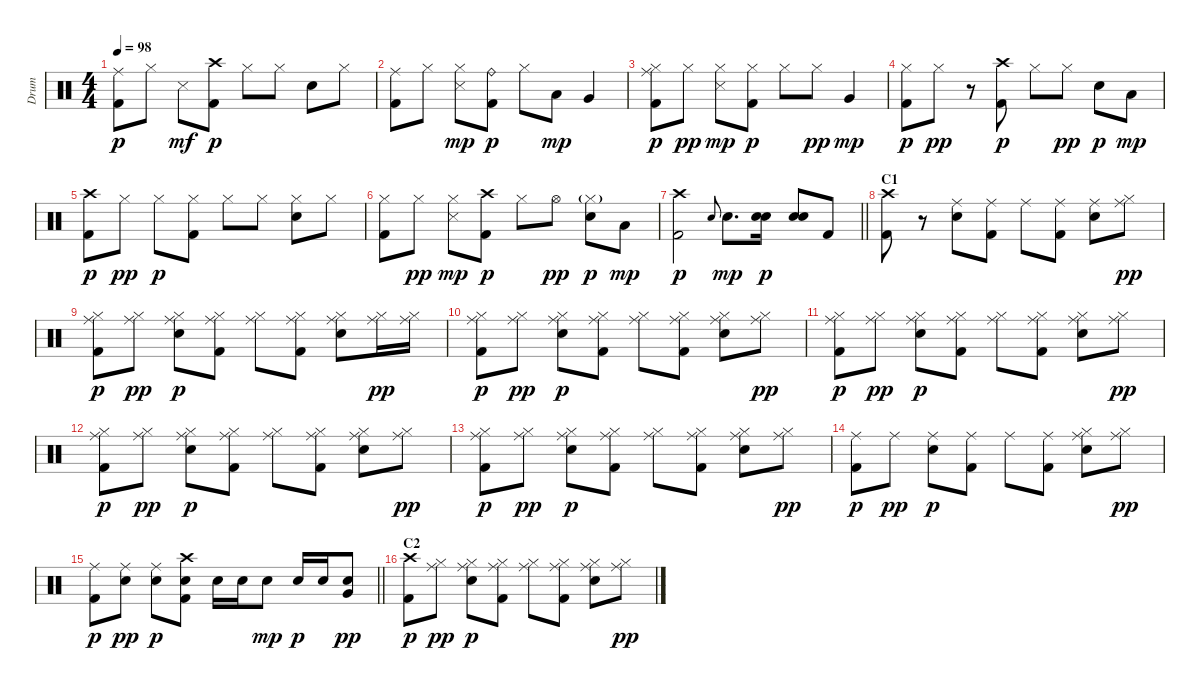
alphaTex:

\track ("Drum" "Drum") {instrument percussion}
\staff {score}
\articulation defaults
\ts (4 4)
\tempo 98
\clef neutral
\ks c
("Ride (middle)" "Kick (hit) 2").8{dy p} "Hi-Hat (closed)".8 "Snare (side stick) 3".8{dy mf} ("Crash high (hit)" "Kick (hit) 2").8{dy p} "Hi-Hat (closed)".8 "Hi-Hat (closed)".8 "Snare (hit) 2".8 "Hi-Hat (closed)".8 |
("Ride (middle)" "Kick (hit) 2").8 "Hi-Hat (closed)".8 ("Hi-Hat (closed)" "Snare (side stick) 3").8{dy mp} ("Ride (bell)" "Kick (hit) 2").8{dy p} "Hi-Hat (closed)".8 "Low Tom (hit)".8{dy mp} "Very Low Tom (hit)".4 |
("Ride (middle)" "Hi-Hat (closed)" "Kick (hit) 2").8{dy p} "Hi-Hat (closed)".8{dy pp} ("Hi-Hat (closed)" "Snare (side stick) 3").8{dy mp} ("Hi-Hat (closed)" "Kick (hit) 2").8{dy p} "Hi-Hat (closed)".8 "Hi-Hat (closed)".8{dy pp} "Very Low Tom (hit)".4{dy mp} |
("Hi-Hat (closed)" "Kick (hit) 2").8{dy p} "Hi-Hat (closed)".8{dy pp} r.8 ("Crash high (hit)" "Kick (hit) 2").8{dy p} "Hi-Hat (closed)".8 "Hi-Hat (closed)".8{dy pp} "Snare (hit) 2".8{dy p} "Low Tom (hit)".8{dy mp} |
("Crash high (hit)" "Kick (hit) 2").8{dy p} "Hi-Hat (closed)".8{dy pp} "Hi-Hat (closed)".8{dy p} ("Hi-Hat (closed)" "Kick (hit) 2").8 "Hi-Hat (closed)".8 "Hi-Hat (closed)".8 ("Hi-Hat (closed)" "Snare (hit) 2").8 "Hi-Hat (closed)".8 |
("Hi-Hat (closed)" "Kick (hit) 2").8 "Hi-Hat (closed)".8{dy pp} ("Hi-Hat (closed)" "Snare (side stick) 3").8{dy mp} ("Crash high (hit)" "Kick (hit) 2").8{dy p} "Hi-Hat (closed)".8 "Hi-Hat (open)".8{dy pp} ("Hi-Hat (closed)"{g} "Snare (hit) 2").8{dy p} "Low Tom (hit)".8{dy mp} |
\barLineRight lightlight
("Crash high (hit)" "Kick (hit) 2").2{dy p} "Snare (hit) 2".8{gr onbeat} "Snare (hit) 2".8{d dy mp} ("Snare (hit) 2" "Snare (hit) 2").16{dy p} ("Snare (hit) 2" "Snare (hit) 2").8 "Kick (hit) 2".8 |
\section ("" "C1")
("Crash high (hit)" "Kick (hit) 2").8 r.8 ("Ride (middle)" "Snare (hit) 2").8 ("Ride (middle)" "Kick (hit) 2").8 "Ride (middle)".8 ("Ride (middle)" "Kick (hit) 2").8 ("Ride (middle)" "Snare (hit) 2").8 ("Hi-Hat (closed)" "Ride (middle)").8{dy pp} |
("Hi-Hat (closed)" "Ride (middle)" "Kick (hit) 2").8{dy p} ("Hi-Hat (closed)" "Ride (middle)").8{dy pp} ("Hi-Hat (closed)" "Ride (middle)" "Snare (hit) 2").8{dy p} ("Hi-Hat (closed)" "Ride (middle)" "Kick (hit) 2").8 ("Hi-Hat (closed)" "Ride (middle)").8 ("Hi-Hat (closed)" "Ride (middle)" "Kick (hit) 2").8 ("Hi-Hat (closed)" "Ride (middle)" "Snare (hit) 2").8 ("Hi-Hat (closed)" "Ride (middle)").16{dy pp} ("Hi-Hat (closed)" "Ride (middle)").16 |
("Hi-Hat (closed)" "Ride (middle)" "Kick (hit) 2").8{dy p} ("Hi-Hat (closed)" "Ride (middle)").8{dy pp} ("Hi-Hat (closed)" "Ride (middle)" "Snare (hit) 2").8{dy p} ("Hi-Hat (closed)" "Ride (middle)" "Kick (hit) 2").8 ("Hi-Hat (closed)" "Ride (middle)").8 ("Hi-Hat (closed)" "Ride (middle)" "Kick (hit) 2").8 ("Hi-Hat (closed)" "Ride (middle)" "Snare (hit) 2").8 ("Hi-Hat (closed)" "Ride (middle)").8{dy pp} |
("Hi-Hat (closed)" "Ride (middle)" "Kick (hit) 2").8{dy p} ("Hi-Hat (closed)" "Ride (middle)").8{dy pp} ("Hi-Hat (closed)" "Ride (middle)" "Snare (hit) 2").8{dy p} ("Hi-Hat (closed)" "Ride (middle)" "Kick (hit) 2").8 ("Hi-Hat (closed)" "Ride (middle)").8 ("Hi-Hat (closed)" "Ride (middle)" "Kick (hit) 2").8 ("Hi-Hat (closed)" "Ride (middle)" "Snare (hit) 2").8 ("Hi-Hat (closed)" "Ride (middle)").8{dy pp} |
("Hi-Hat (closed)" "Ride (middle)" "Kick (hit) 2").8{dy p} ("Hi-Hat (closed)" "Ride (middle)").8{dy pp} ("Hi-Hat (closed)" "Ride (middle)" "Snare (hit) 2").8{dy p} ("Hi-Hat (closed)" "Ride (middle)" "Kick (hit) 2").8 ("Hi-Hat (closed)" "Ride (middle)").8 ("Hi-Hat (closed)" "Ride (middle)" "Kick (hit) 2").8 ("Hi-Hat (closed)" "Ride (middle)" "Snare (hit) 2").8 ("Hi-Hat (closed)" "Ride (middle)").8{dy pp} |
("Hi-Hat (closed)" "Ride (middle)" "Kick (hit) 2").8{dy p} ("Hi-Hat (closed)" "Ride (middle)").8{dy pp} ("Hi-Hat (closed)" "Ride (middle)" "Snare (hit) 2").8{dy p} ("Hi-Hat (closed)" "Ride (middle)" "Kick (hit) 2").8 ("Hi-Hat (closed)" "Ride (middle)").8 ("Hi-Hat (closed)" "Ride (middle)" "Kick (hit) 2").8 ("Hi-Hat (closed)" "Ride (middle)" "Snare (hit) 2").8 ("Hi-Hat (closed)" "Ride (middle)").8{dy pp} |
("Ride (middle)" "Kick (hit) 2").8{dy p} "Ride (middle)".8{dy pp} ("Ride (middle)" "Snare (hit) 2").8{dy p} ("Ride (middle)" "Kick (hit) 2").8 "Ride (middle)".8 ("Ride (middle)" "Kick (hit) 2").8 ("Hi-Hat (closed)" "Ride (middle)" "Snare (hit) 2").8 ("Hi-Hat (closed)" "Ride (middle)").8{dy pp} |
\barLineRight lightlight
("Ride (middle)" "Kick (hit) 2").8{dy p} ("Ride (middle)" "Snare (hit) 2").8{dy pp} ("Ride (middle)" "Snare (hit) 2").8{dy p} ("Crash high (hit)" "Snare (hit) 2" "Kick (hit) 2").8 "Snare (hit) 2".16 "Snare (hit) 2".16 "Snare (hit) 2".8{dy mp} "Snare (hit) 2".16{dy p} "Snare (hit) 2".16 ("Very Low Tom (hit)" "Snare (hit) 2").8{dy pp} |
\section ("" "C2")
("Crash high (hit)" "Kick (hit) 2").8{dy p} ("Hi-Hat (closed)" "Ride (middle)").8{dy pp} ("Hi-Hat (closed)" "Ride (middle)" "Snare (hit) 2").8{dy p} ("Hi-Hat (closed)" "Ride (middle)" "Kick (hit) 2").8 ("Hi-Hat (closed)" "Ride (middle)").8 ("Hi-Hat (closed)" "Ride (middle)" "Kick (hit) 2").8 ("Hi-Hat (closed)" "Ride (middle)" "Snare (hit) 2").8 ("Hi-Hat (closed)" "Ride (middle)").8{dy pp}
